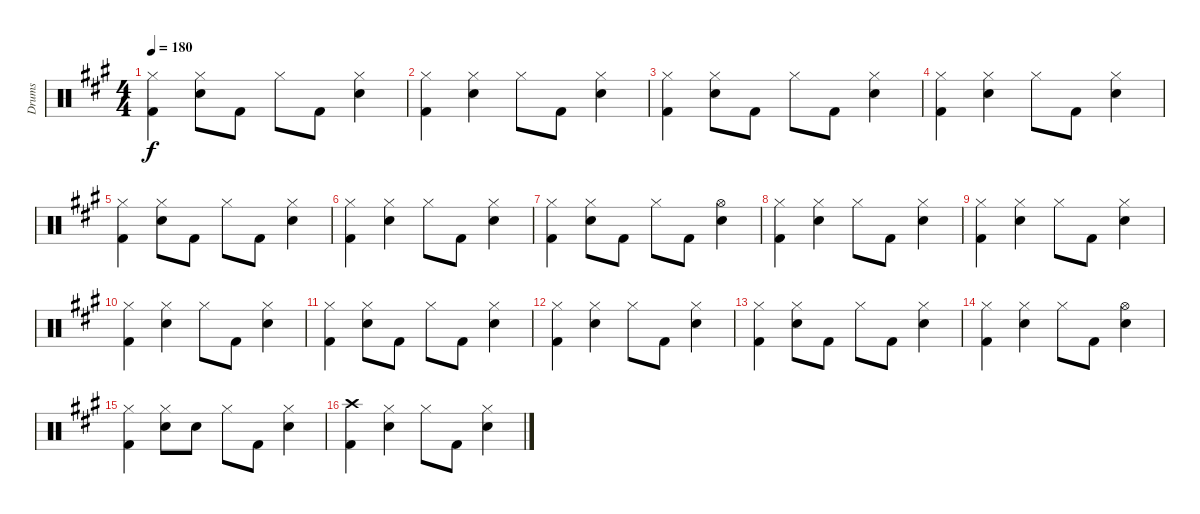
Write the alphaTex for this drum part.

\track ("Drums" "Drums") {instrument percussion}
\staff {score}
\articulation defaults
\ts (4 4)
\tempo 180
\clef neutral
\ks a
("Hi-Hat (closed)" "Kick (hit) 2").4{dy f} ("Hi-Hat (closed)" "Electric Snare (hit)").8 "Kick (hit) 2".8 "Hi-Hat (closed)".8 "Kick (hit) 2".8 ("Hi-Hat (closed)" "Electric Snare (hit)").4 |
("Hi-Hat (closed)" "Kick (hit) 2").4 ("Hi-Hat (closed)" "Electric Snare (hit)").4 "Hi-Hat (closed)".8 "Kick (hit) 2".8 ("Hi-Hat (closed)" "Electric Snare (hit)").4 |
("Hi-Hat (closed)" "Kick (hit) 2").4 ("Hi-Hat (closed)" "Electric Snare (hit)").8 "Kick (hit) 2".8 "Hi-Hat (closed)".8 "Kick (hit) 2".8 ("Hi-Hat (closed)" "Electric Snare (hit)").4 |
("Hi-Hat (closed)" "Kick (hit) 2").4 ("Hi-Hat (closed)" "Electric Snare (hit)").4 "Hi-Hat (closed)".8 "Kick (hit) 2".8 ("Hi-Hat (closed)" "Electric Snare (hit)").4 |
("Hi-Hat (closed)" "Kick (hit) 2").4 ("Hi-Hat (closed)" "Electric Snare (hit)").8 "Kick (hit) 2".8 "Hi-Hat (closed)".8 "Kick (hit) 2".8 ("Hi-Hat (closed)" "Electric Snare (hit)").4 |
("Hi-Hat (closed)" "Kick (hit) 2").4 ("Hi-Hat (closed)" "Electric Snare (hit)").4 "Hi-Hat (closed)".8 "Kick (hit) 2".8 ("Hi-Hat (closed)" "Electric Snare (hit)").4 |
("Hi-Hat (closed)" "Kick (hit) 2").4 ("Hi-Hat (closed)" "Electric Snare (hit)").8 "Kick (hit) 2".8 "Hi-Hat (closed)".8 "Kick (hit) 2".8 ("Hi-Hat (open)" "Electric Snare (hit)").4 |
("Hi-Hat (closed)" "Kick (hit) 2").4 ("Hi-Hat (closed)" "Electric Snare (hit)").4 "Hi-Hat (closed)".8 "Kick (hit) 2".8 ("Hi-Hat (closed)" "Electric Snare (hit)").4 |
("Hi-Hat (closed)" "Kick (hit) 2").4 ("Hi-Hat (closed)" "Electric Snare (hit)").4 "Hi-Hat (closed)".8 "Kick (hit) 2".8 ("Hi-Hat (closed)" "Electric Snare (hit)").4 |
("Hi-Hat (closed)" "Kick (hit) 2").4 ("Hi-Hat (closed)" "Electric Snare (hit)").4 "Hi-Hat (closed)".8 "Kick (hit) 2".8 ("Hi-Hat (closed)" "Electric Snare (hit)").4 |
("Hi-Hat (closed)" "Kick (hit) 2").4 ("Hi-Hat (closed)" "Electric Snare (hit)").8 "Kick (hit) 2".8 "Hi-Hat (closed)".8 "Kick (hit) 2".8 ("Hi-Hat (closed)" "Electric Snare (hit)").4 |
("Hi-Hat (closed)" "Kick (hit) 2").4 ("Hi-Hat (closed)" "Electric Snare (hit)").4 "Hi-Hat (closed)".8 "Kick (hit) 2".8 ("Hi-Hat (closed)" "Electric Snare (hit)").4 |
("Hi-Hat (closed)" "Kick (hit) 2").4 ("Hi-Hat (closed)" "Electric Snare (hit)").8 "Kick (hit) 2".8 "Hi-Hat (closed)".8 "Kick (hit) 2".8 ("Hi-Hat (closed)" "Electric Snare (hit)").4 |
("Hi-Hat (closed)" "Kick (hit) 2").4 ("Hi-Hat (closed)" "Electric Snare (hit)").4 "Hi-Hat (closed)".8 "Kick (hit) 2".8 ("Hi-Hat (open)" "Electric Snare (hit)").4 |
("Hi-Hat (closed)" "Kick (hit) 2").4 ("Hi-Hat (closed)" "Electric Snare (hit)").8 "Electric Snare (hit)".8 "Hi-Hat (closed)".8 "Kick (hit) 2".8 ("Hi-Hat (closed)" "Electric Snare (hit)").4 |
("Crash high (hit)" "Kick (hit) 2").4 ("Hi-Hat (closed)" "Electric Snare (hit)").4 "Hi-Hat (closed)".8 "Kick (hit) 2".8 ("Hi-Hat (closed)" "Electric Snare (hit)").4
